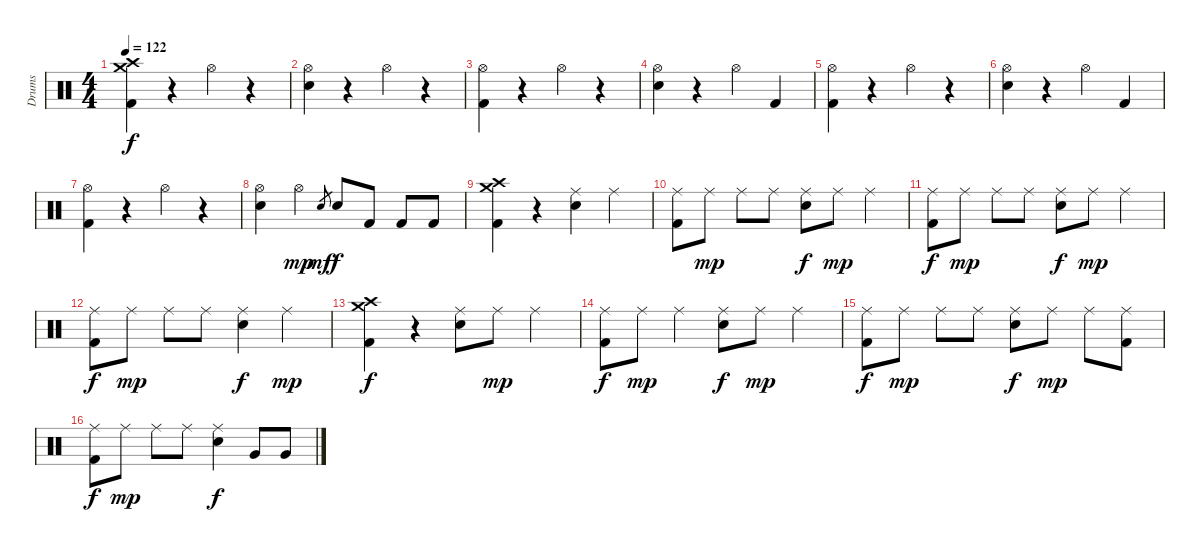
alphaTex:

\track ("Drums" "Drums") {instrument percussion}
\staff {score}
\articulation defaults
\ts (4 4)
\tempo 122
\clef neutral
\ks c
("Crash high (hit)" "Crash medium (hit)" "Kick (hit) 2").4{dy f} r.4 "Hi-Hat (open)".4 r.4 |
("Hi-Hat (open)" "Snare (hit) 2").4 r.4 "Hi-Hat (open)".4 r.4 |
("Hi-Hat (open)" "Kick (hit) 2").4 r.4 "Hi-Hat (open)".4 r.4 |
("Hi-Hat (open)" "Snare (hit) 2").4 r.4 "Hi-Hat (open)".4 "Kick (hit) 2".4 |
("Hi-Hat (open)" "Kick (hit) 2").4 r.4 "Hi-Hat (open)".4 r.4 |
("Hi-Hat (open)" "Snare (hit) 2").4 r.4 "Hi-Hat (open)".4 "Kick (hit) 2".4 |
("Hi-Hat (open)" "Kick (hit) 2").4 r.4 "Hi-Hat (open)".4 r.4 |
("Hi-Hat (open)" "Snare (hit) 2").4 "Hi-Hat (open)".4{dy mp} "Snare (hit) 2".8{gr dy mf} "Snare (hit) 2".8{dy f} "Kick (hit) 2".8 "Kick (hit) 2".8 "Kick (hit) 2".8 |
("Crash high (hit)" "Crash medium (hit)" "Kick (hit) 2").4 r.4 ("Ride (middle)" "Snare (hit) 2").4 "Ride (middle)".4 |
("Ride (middle)" "Kick (hit) 2").8 "Ride (middle)".8{dy mp} "Ride (middle)".8 "Ride (middle)".8 ("Ride (middle)" "Snare (hit) 2").8{dy f} "Ride (middle)".8{dy mp} "Ride (middle)".4 |
("Ride (middle)" "Kick (hit) 2").8{dy f} "Ride (middle)".8{dy mp} "Ride (middle)".8 "Ride (middle)".8 ("Ride (middle)" "Snare (hit) 2").8{dy f} "Ride (middle)".8{dy mp} "Ride (middle)".4 |
("Ride (middle)" "Kick (hit) 2").8{dy f} "Ride (middle)".8{dy mp} "Ride (middle)".8 "Ride (middle)".8 ("Ride (middle)" "Snare (hit) 2").4{dy f} "Ride (middle)".4{dy mp} |
("Crash high (hit)" "Crash medium (hit)" "Kick (hit) 2").4{dy f} r.4 ("Ride (middle)" "Snare (hit) 2").8 "Ride (middle)".8{dy mp} "Ride (middle)".4 |
("Ride (middle)" "Kick (hit) 2").8{dy f} "Ride (middle)".8{dy mp} "Ride (middle)".4 ("Ride (middle)" "Snare (hit) 2").8{dy f} "Ride (middle)".8{dy mp} "Ride (middle)".4 |
("Ride (middle)" "Kick (hit) 2").8{dy f} "Ride (middle)".8{dy mp} "Ride (middle)".8 "Ride (middle)".8 ("Ride (middle)" "Snare (hit) 2").8{dy f} "Ride (middle)".8{dy mp} "Ride (middle)".8 ("Ride (middle)" "Kick (hit) 2").8 |
("Ride (middle)" "Kick (hit) 2").8{dy f} "Ride (middle)".8{dy mp} "Ride (middle)".8 "Ride (middle)".8 ("Ride (middle)" "Snare (hit) 2").4{dy f} "Very Low Tom (hit)".8 "Very Low Tom (hit)".8
